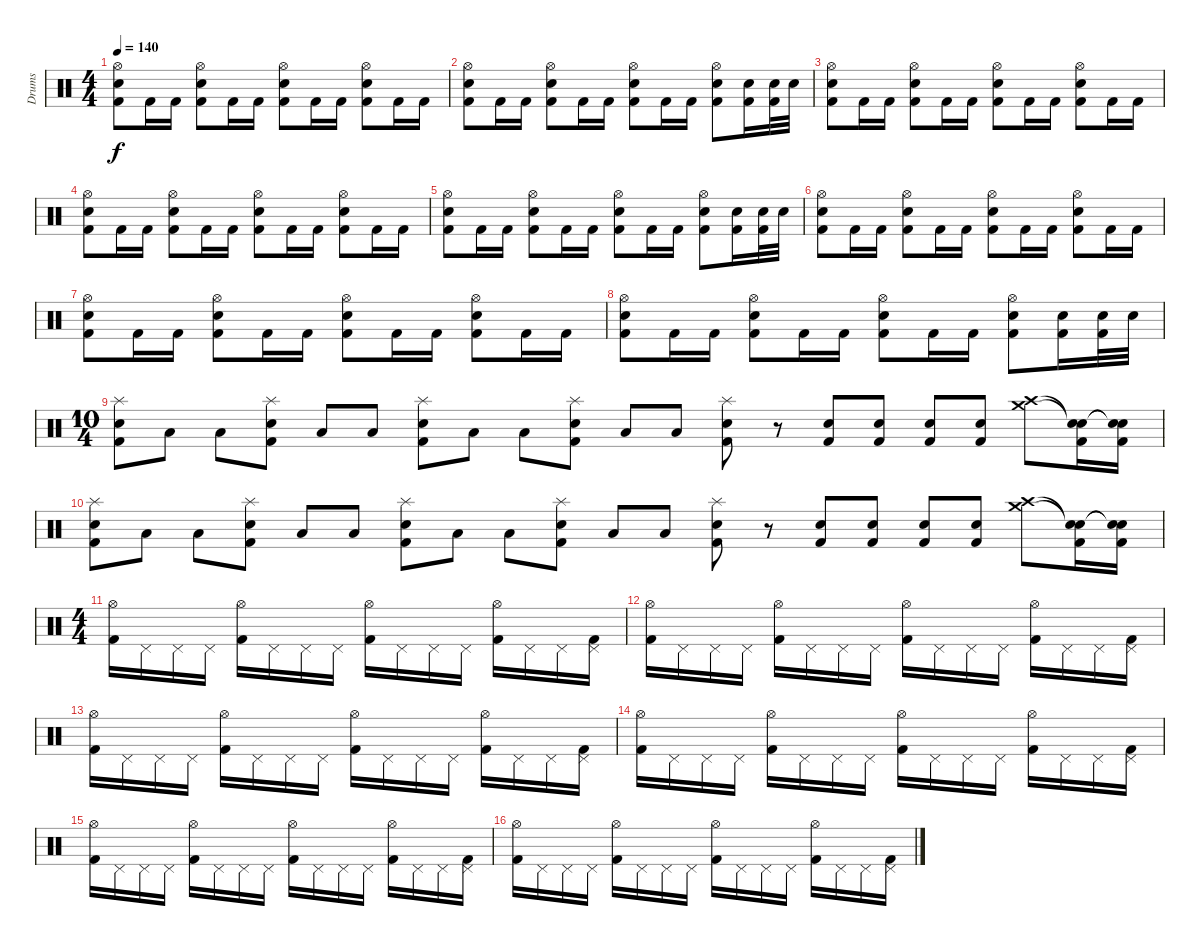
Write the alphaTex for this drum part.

\track ("Drums" "Drums") {instrument percussion}
\staff {score}
\articulation defaults
\ts (4 4)
\tempo 140
\clef neutral
\ks c
("Hi-Hat (open)" "Snare (hit) 2" "Kick (hit) 2").8{dy f} "Kick (hit) 2".16 "Kick (hit) 2".16 ("Hi-Hat (open)" "Snare (hit) 2" "Kick (hit) 2").8 "Kick (hit) 2".16 "Kick (hit) 2".16 ("Hi-Hat (open)" "Snare (hit) 2" "Kick (hit) 2").8 "Kick (hit) 2".16 "Kick (hit) 2".16 ("Hi-Hat (open)" "Snare (hit) 2" "Kick (hit) 2").8 "Kick (hit) 2".16 "Kick (hit) 2".16 |
("Hi-Hat (open)" "Snare (hit) 2" "Kick (hit) 2").8 "Kick (hit) 2".16 "Kick (hit) 2".16 ("Hi-Hat (open)" "Snare (hit) 2" "Kick (hit) 2").8 "Kick (hit) 2".16 "Kick (hit) 2".16 ("Hi-Hat (open)" "Snare (hit) 2" "Kick (hit) 2").8 "Kick (hit) 2".16 "Kick (hit) 2".16 ("Hi-Hat (open)" "Snare (hit) 2" "Kick (hit) 2").8 ("Snare (hit) 2" "Kick (hit) 2").16 ("Snare (hit) 2" "Kick (hit) 2").32 "Snare (hit) 2".32 |
("Hi-Hat (open)" "Snare (hit) 2" "Kick (hit) 2").8 "Kick (hit) 2".16 "Kick (hit) 2".16 ("Hi-Hat (open)" "Snare (hit) 2" "Kick (hit) 2").8 "Kick (hit) 2".16 "Kick (hit) 2".16 ("Hi-Hat (open)" "Snare (hit) 2" "Kick (hit) 2").8 "Kick (hit) 2".16 "Kick (hit) 2".16 ("Hi-Hat (open)" "Snare (hit) 2" "Kick (hit) 2").8 "Kick (hit) 2".16 "Kick (hit) 2".16 |
("Hi-Hat (open)" "Snare (hit) 2" "Kick (hit) 2").8 "Kick (hit) 2".16 "Kick (hit) 2".16 ("Hi-Hat (open)" "Snare (hit) 2" "Kick (hit) 2").8 "Kick (hit) 2".16 "Kick (hit) 2".16 ("Hi-Hat (open)" "Snare (hit) 2" "Kick (hit) 2").8 "Kick (hit) 2".16 "Kick (hit) 2".16 ("Hi-Hat (open)" "Snare (hit) 2" "Kick (hit) 2").8 "Kick (hit) 2".16 "Kick (hit) 2".16 |
("Hi-Hat (open)" "Snare (hit) 2" "Kick (hit) 2").8 "Kick (hit) 2".16 "Kick (hit) 2".16 ("Hi-Hat (open)" "Snare (hit) 2" "Kick (hit) 2").8 "Kick (hit) 2".16 "Kick (hit) 2".16 ("Hi-Hat (open)" "Snare (hit) 2" "Kick (hit) 2").8 "Kick (hit) 2".16 "Kick (hit) 2".16 ("Hi-Hat (open)" "Snare (hit) 2" "Kick (hit) 2").8 ("Snare (hit) 2" "Kick (hit) 2").16 ("Snare (hit) 2" "Kick (hit) 2").32 "Snare (hit) 2".32 |
("Hi-Hat (open)" "Snare (hit) 2" "Kick (hit) 2").8 "Kick (hit) 2".16 "Kick (hit) 2".16 ("Hi-Hat (open)" "Snare (hit) 2" "Kick (hit) 2").8 "Kick (hit) 2".16 "Kick (hit) 2".16 ("Hi-Hat (open)" "Snare (hit) 2" "Kick (hit) 2").8 "Kick (hit) 2".16 "Kick (hit) 2".16 ("Hi-Hat (open)" "Snare (hit) 2" "Kick (hit) 2").8 "Kick (hit) 2".16 "Kick (hit) 2".16 |
("Hi-Hat (open)" "Snare (hit) 2" "Kick (hit) 2").8 "Kick (hit) 2".16 "Kick (hit) 2".16 ("Hi-Hat (open)" "Snare (hit) 2" "Kick (hit) 2").8 "Kick (hit) 2".16 "Kick (hit) 2".16 ("Hi-Hat (open)" "Snare (hit) 2" "Kick (hit) 2").8 "Kick (hit) 2".16 "Kick (hit) 2".16 ("Hi-Hat (open)" "Snare (hit) 2" "Kick (hit) 2").8 "Kick (hit) 2".16 "Kick (hit) 2".16 |
("Hi-Hat (open)" "Snare (hit) 2" "Kick (hit) 2").8 "Kick (hit) 2".16 "Kick (hit) 2".16 ("Hi-Hat (open)" "Snare (hit) 2" "Kick (hit) 2").8 "Kick (hit) 2".16 "Kick (hit) 2".16 ("Hi-Hat (open)" "Snare (hit) 2" "Kick (hit) 2").8 "Kick (hit) 2".16 "Kick (hit) 2".16 ("Hi-Hat (open)" "Snare (hit) 2" "Kick (hit) 2").8 ("Snare (hit) 2" "Kick (hit) 2").16 ("Snare (hit) 2" "Kick (hit) 2").32 "Snare (hit) 2".32 |
\ts (10 4)
("Splash (hit)" "Snare (hit) 2" "Kick (hit) 2").8 "Low Floor Tom (hit)".8 "Low Tom (hit)".8 ("Splash (hit)" "Snare (hit) 2" "Kick (hit) 2").8 "Low Floor Tom (hit)".8 "Low Tom (hit)".8 ("Splash (hit)" "Snare (hit) 2" "Kick (hit) 2").8 "Low Floor Tom (hit)".8 "Low Tom (hit)".8 ("Splash (hit)" "Snare (hit) 2" "Kick (hit) 2").8 "Low Floor Tom (hit)".8 "Low Tom (hit)".8 ("Splash (hit)" "Snare (hit) 2" "Kick (hit) 2").8 r.8 ("Snare (hit) 2" "Kick (hit) 2").8 ("Snare (hit) 2" "Kick (hit) 2").8 ("Snare (hit) 2" "Kick (hit) 2").8 ("Snare (hit) 2" "Kick (hit) 2").8 ("Crash medium (hit)" "Crash high (hit)").8 ("Snare (hit)"{t} "Snare (hit)"{t} "Kick (hit) 2").16 ("Snare (hit)"{t} "Snare (hit)"{t} "Kick (hit) 2").16 |
("Splash (hit)" "Snare (hit) 2" "Kick (hit) 2").8 "Low Floor Tom (hit)".8 "Low Tom (hit)".8 ("Splash (hit)" "Snare (hit) 2" "Kick (hit) 2").8 "Low Floor Tom (hit)".8 "Low Tom (hit)".8 ("Splash (hit)" "Snare (hit) 2" "Kick (hit) 2").8 "Low Floor Tom (hit)".8 "Low Tom (hit)".8 ("Splash (hit)" "Snare (hit) 2" "Kick (hit) 2").8 "Low Floor Tom (hit)".8 "Low Tom (hit)".8 ("Splash (hit)" "Snare (hit) 2" "Kick (hit) 2").8 r.8 ("Snare (hit) 2" "Kick (hit) 2").8 ("Snare (hit) 2" "Kick (hit) 2").8 ("Snare (hit) 2" "Kick (hit) 2").8 ("Snare (hit) 2" "Kick (hit) 2").8 ("Crash medium (hit)" "Crash high (hit)").8 ("Snare (hit)"{t} "Snare (hit)"{t} "Kick (hit) 2").16 ("Snare (hit)"{t} "Snare (hit)"{t} "Kick (hit) 2").16 |
\ts (4 4)
("Hi-Hat (open)" "Kick (hit) 2").16 "Pedal Hi-Hat (hit)".16 "Pedal Hi-Hat (hit)".16 "Pedal Hi-Hat (hit)".16 ("Hi-Hat (open)" "Kick (hit) 2").16 "Pedal Hi-Hat (hit)".16 "Pedal Hi-Hat (hit)".16 "Pedal Hi-Hat (hit)".16 ("Hi-Hat (open)" "Kick (hit) 2").16 "Pedal Hi-Hat (hit)".16 "Pedal Hi-Hat (hit)".16 "Pedal Hi-Hat (hit)".16 ("Hi-Hat (open)" "Kick (hit) 2").16 "Pedal Hi-Hat (hit)".16 "Pedal Hi-Hat (hit)".16 ("Pedal Hi-Hat (hit)" "Kick (hit) 2").16 |
("Hi-Hat (open)" "Kick (hit) 2").16 "Pedal Hi-Hat (hit)".16 "Pedal Hi-Hat (hit)".16 "Pedal Hi-Hat (hit)".16 ("Hi-Hat (open)" "Kick (hit) 2").16 "Pedal Hi-Hat (hit)".16 "Pedal Hi-Hat (hit)".16 "Pedal Hi-Hat (hit)".16 ("Hi-Hat (open)" "Kick (hit) 2").16 "Pedal Hi-Hat (hit)".16 "Pedal Hi-Hat (hit)".16 "Pedal Hi-Hat (hit)".16 ("Hi-Hat (open)" "Kick (hit) 2").16 "Pedal Hi-Hat (hit)".16 "Pedal Hi-Hat (hit)".16 ("Pedal Hi-Hat (hit)" "Kick (hit) 2").16 |
("Hi-Hat (open)" "Kick (hit) 2").16 "Pedal Hi-Hat (hit)".16 "Pedal Hi-Hat (hit)".16 "Pedal Hi-Hat (hit)".16 ("Hi-Hat (open)" "Kick (hit) 2").16 "Pedal Hi-Hat (hit)".16 "Pedal Hi-Hat (hit)".16 "Pedal Hi-Hat (hit)".16 ("Hi-Hat (open)" "Kick (hit) 2").16 "Pedal Hi-Hat (hit)".16 "Pedal Hi-Hat (hit)".16 "Pedal Hi-Hat (hit)".16 ("Hi-Hat (open)" "Kick (hit) 2").16 "Pedal Hi-Hat (hit)".16 "Pedal Hi-Hat (hit)".16 ("Pedal Hi-Hat (hit)" "Kick (hit) 2").16 |
("Hi-Hat (open)" "Kick (hit) 2").16 "Pedal Hi-Hat (hit)".16 "Pedal Hi-Hat (hit)".16 "Pedal Hi-Hat (hit)".16 ("Hi-Hat (open)" "Kick (hit) 2").16 "Pedal Hi-Hat (hit)".16 "Pedal Hi-Hat (hit)".16 "Pedal Hi-Hat (hit)".16 ("Hi-Hat (open)" "Kick (hit) 2").16 "Pedal Hi-Hat (hit)".16 "Pedal Hi-Hat (hit)".16 "Pedal Hi-Hat (hit)".16 ("Hi-Hat (open)" "Kick (hit) 2").16 "Pedal Hi-Hat (hit)".16 "Pedal Hi-Hat (hit)".16 ("Pedal Hi-Hat (hit)" "Kick (hit) 2").16 |
("Hi-Hat (open)" "Kick (hit) 2").16 "Pedal Hi-Hat (hit)".16 "Pedal Hi-Hat (hit)".16 "Pedal Hi-Hat (hit)".16 ("Hi-Hat (open)" "Kick (hit) 2").16 "Pedal Hi-Hat (hit)".16 "Pedal Hi-Hat (hit)".16 "Pedal Hi-Hat (hit)".16 ("Hi-Hat (open)" "Kick (hit) 2").16 "Pedal Hi-Hat (hit)".16 "Pedal Hi-Hat (hit)".16 "Pedal Hi-Hat (hit)".16 ("Hi-Hat (open)" "Kick (hit) 2").16 "Pedal Hi-Hat (hit)".16 "Pedal Hi-Hat (hit)".16 ("Pedal Hi-Hat (hit)" "Kick (hit) 2").16 |
("Hi-Hat (open)" "Kick (hit) 2").16 "Pedal Hi-Hat (hit)".16 "Pedal Hi-Hat (hit)".16 "Pedal Hi-Hat (hit)".16 ("Hi-Hat (open)" "Kick (hit) 2").16 "Pedal Hi-Hat (hit)".16 "Pedal Hi-Hat (hit)".16 "Pedal Hi-Hat (hit)".16 ("Hi-Hat (open)" "Kick (hit) 2").16 "Pedal Hi-Hat (hit)".16 "Pedal Hi-Hat (hit)".16 "Pedal Hi-Hat (hit)".16 ("Hi-Hat (open)" "Kick (hit) 2").16 "Pedal Hi-Hat (hit)".16 "Pedal Hi-Hat (hit)".16 ("Pedal Hi-Hat (hit)" "Kick (hit) 2").16
